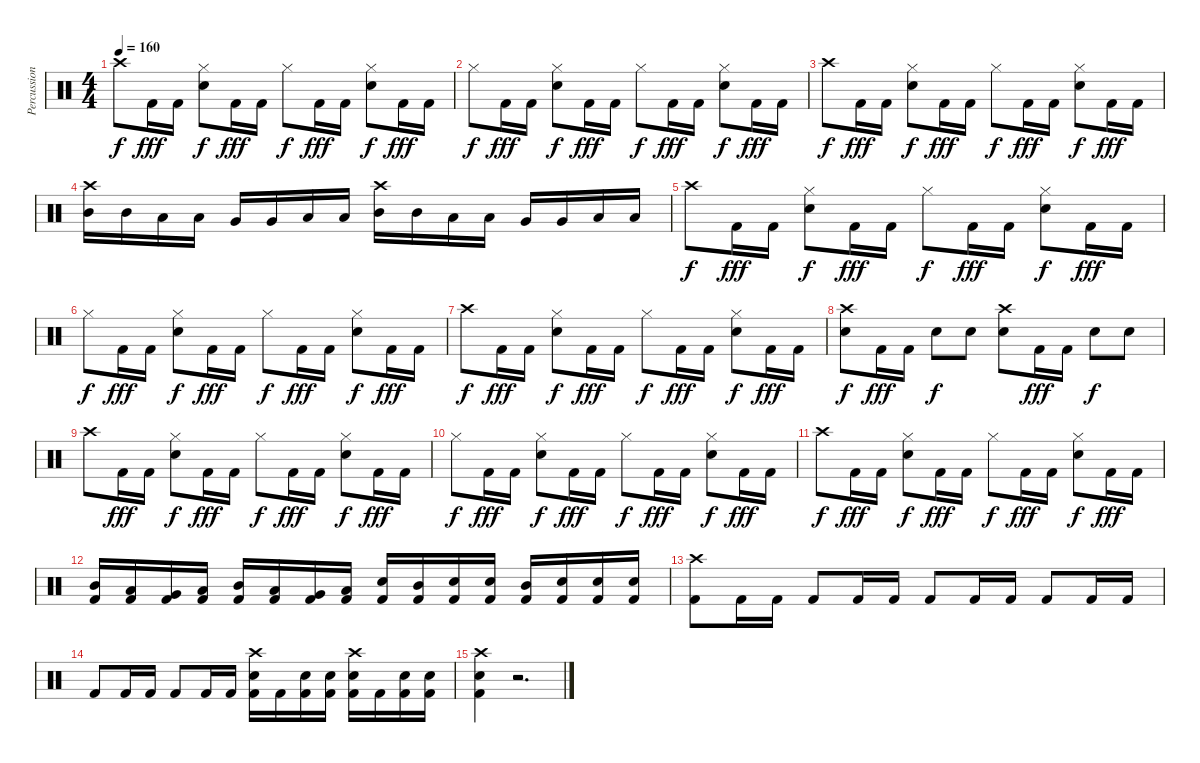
\track ("Percussion" "Percussion") {instrument percussion}
\staff {score}
\articulation defaults
\ts (4 4)
\tempo 160
\clef neutral
\ks c "Crash high (hit)".8{dy f} "Kick (hit) 2".16{dy fff} "Kick (hit) 2".16
("Hi-Hat (closed)" "Electric Snare (hit)").8{dy f} "Kick (hit) 2".16{dy fff} "Kick (hit) 2".16 "Hi-Hat (closed)".8{dy f} "Kick (hit) 2".16{dy fff} "Kick (hit) 2".16 ("Hi-Hat (closed)" "Electric Snare (hit)").8{dy f} "Kick (hit) 2".16{dy fff} "Kick (hit) 2".16 |
"Hi-Hat (closed)".8{dy f} "Kick (hit) 2".16{dy fff} "Kick (hit) 2".16 ("Hi-Hat (closed)" "Electric Snare (hit)").8{dy f} "Kick (hit) 2".16{dy fff} "Kick (hit) 2".16 "Hi-Hat (closed)".8{dy f} "Kick (hit) 2".16{dy fff} "Kick (hit) 2".16 ("Hi-Hat (closed)" "Electric Snare (hit)").8{dy f} "Kick (hit) 2".16{dy fff} "Kick (hit) 2".16 |
"Crash high (hit)".8{dy f} "Kick (hit) 2".16{dy fff} "Kick (hit) 2".16 ("Hi-Hat (closed)" "Electric Snare (hit)").8{dy f} "Kick (hit) 2".16{dy fff} "Kick (hit) 2".16 "Hi-Hat (closed)".8{dy f} "Kick (hit) 2".16{dy fff} "Kick (hit) 2".16 ("Hi-Hat (closed)" "Electric Snare (hit)").8{dy f} "Kick (hit) 2".16{dy fff} "Kick (hit) 2".16 |
("Crash high (hit)" "Mid Tom (hit)").16 "Mid Tom (hit)".16 "Low Tom (hit)".16 "Low Tom (hit)".16 "Very Low Tom (hit)".16 "Very Low Tom (hit)".16 "Low Floor Tom (hit)".16 "Low Floor Tom (hit)".16 ("Crash high (hit)" "Mid Tom (hit)").16 "Mid Tom (hit)".16 "Low Tom (hit)".16 "Low Tom (hit)".16 "Very Low Tom (hit)".16 "Very Low Tom (hit)".16 "Low Floor Tom (hit)".16 "Low Floor Tom (hit)".16 |
"Crash high (hit)".8{dy f} "Kick (hit) 2".16{dy fff} "Kick (hit) 2".16 ("Hi-Hat (closed)" "Electric Snare (hit)").8{dy f} "Kick (hit) 2".16{dy fff} "Kick (hit) 2".16 "Hi-Hat (closed)".8{dy f} "Kick (hit) 2".16{dy fff} "Kick (hit) 2".16 ("Hi-Hat (closed)" "Electric Snare (hit)").8{dy f} "Kick (hit) 2".16{dy fff} "Kick (hit) 2".16 |
"Hi-Hat (closed)".8{dy f} "Kick (hit) 2".16{dy fff} "Kick (hit) 2".16 ("Hi-Hat (closed)" "Electric Snare (hit)").8{dy f} "Kick (hit) 2".16{dy fff} "Kick (hit) 2".16 "Hi-Hat (closed)".8{dy f} "Kick (hit) 2".16{dy fff} "Kick (hit) 2".16 ("Hi-Hat (closed)" "Electric Snare (hit)").8{dy f} "Kick (hit) 2".16{dy fff} "Kick (hit) 2".16 |
"Crash high (hit)".8{dy f} "Kick (hit) 2".16{dy fff} "Kick (hit) 2".16 ("Hi-Hat (closed)" "Electric Snare (hit)").8{dy f} "Kick (hit) 2".16{dy fff} "Kick (hit) 2".16 "Hi-Hat (closed)".8{dy f} "Kick (hit) 2".16{dy fff} "Kick (hit) 2".16 ("Hi-Hat (closed)" "Electric Snare (hit)").8{dy f} "Kick (hit) 2".16{dy fff} "Kick (hit) 2".16 |
("Crash high (hit)" "Electric Snare (hit)").8{dy f} "Kick (hit) 2".16{dy fff} "Kick (hit) 2".16 "Electric Snare (hit)".8{dy f} "Electric Snare (hit)".8 ("Crash high (hit)" "Electric Snare (hit)").8 "Kick (hit) 2".16{dy fff} "Kick (hit) 2".16 "Electric Snare (hit)".8{dy f} "Electric Snare (hit)".8 |
"Crash high (hit)".8 "Kick (hit) 2".16{dy fff} "Kick (hit) 2".16 ("Hi-Hat (closed)" "Electric Snare (hit)").8{dy f} "Kick (hit) 2".16{dy fff} "Kick (hit) 2".16 "Hi-Hat (closed)".8{dy f} "Kick (hit) 2".16{dy fff} "Kick (hit) 2".16 ("Hi-Hat (closed)" "Electric Snare (hit)").8{dy f} "Kick (hit) 2".16{dy fff} "Kick (hit) 2".16 |
"Hi-Hat (closed)".8{dy f} "Kick (hit) 2".16{dy fff} "Kick (hit) 2".16 ("Hi-Hat (closed)" "Electric Snare (hit)").8{dy f} "Kick (hit) 2".16{dy fff} "Kick (hit) 2".16 "Hi-Hat (closed)".8{dy f} "Kick (hit) 2".16{dy fff} "Kick (hit) 2".16 ("Hi-Hat (closed)" "Electric Snare (hit)").8{dy f} "Kick (hit) 2".16{dy fff} "Kick (hit) 2".16 |
"Crash high (hit)".8{dy f} "Kick (hit) 2".16{dy fff} "Kick (hit) 2".16 ("Hi-Hat (closed)" "Electric Snare (hit)").8{dy f} "Kick (hit) 2".16{dy fff} "Kick (hit) 2".16 "Hi-Hat (closed)".8{dy f} "Kick (hit) 2".16{dy fff} "Kick (hit) 2".16 ("Hi-Hat (closed)" "Electric Snare (hit)").8{dy f} "Kick (hit) 2".16{dy fff} "Kick (hit) 2".16 |
("Mid Tom (hit)" "Kick (hit) 2").16 ("Low Tom (hit)" "Kick (hit) 2").16 ("Very Low Tom (hit)" "Kick (hit) 2").16 ("Low Floor Tom (hit)" "Kick (hit) 2").16 ("Mid Tom (hit)" "Kick (hit) 2").16 ("Low Tom (hit)" "Kick (hit) 2").16 ("Very Low Tom (hit)" "Kick (hit) 2").16 ("Low Floor Tom (hit)" "Kick (hit) 2").16 ("Electric Snare (hit)" "Kick (hit) 2").16 ("Mid Tom (hit)" "Kick (hit) 2").16 ("Electric Snare (hit)" "Kick (hit) 2").16 ("Electric Snare (hit)" "Kick (hit) 2").16 ("Mid Tom (hit)" "Kick (hit) 2").16 ("Electric Snare (hit)" "Kick (hit) 2").16 ("Electric Snare (hit)" "Kick (hit) 2").16 ("Electric Snare (hit)" "Kick (hit) 2").16 |
("Crash high (hit)" "Kick (hit) 2").8 "Kick (hit) 2".16 "Kick (hit) 2".16 "Kick (hit) 2".8 "Kick (hit) 2".16 "Kick (hit) 2".16 "Kick (hit) 2".8 "Kick (hit) 2".16 "Kick (hit) 2".16 "Kick (hit) 2".8 "Kick (hit) 2".16 "Kick (hit) 2".16 |
"Kick (hit) 2".8 "Kick (hit) 2".16 "Kick (hit) 2".16 "Kick (hit) 2".8 "Kick (hit) 2".16 "Kick (hit) 2".16 ("Crash high (hit)" "Electric Snare (hit)" "Kick (hit) 2").16 "Kick (hit) 2".16 ("Electric Snare (hit)" "Kick (hit) 2").16 ("Electric Snare (hit)" "Kick (hit) 2").16 ("Crash high (hit)" "Electric Snare (hit)" "Kick (hit) 2").16 "Kick (hit) 2".16 ("Electric Snare (hit)" "Kick (hit) 2").16 ("Electric Snare (hit)" "Kick (hit) 2").16 |
("Crash high (hit)" "Electric Snare (hit)" "Kick (hit) 2").4 r.2{d}
